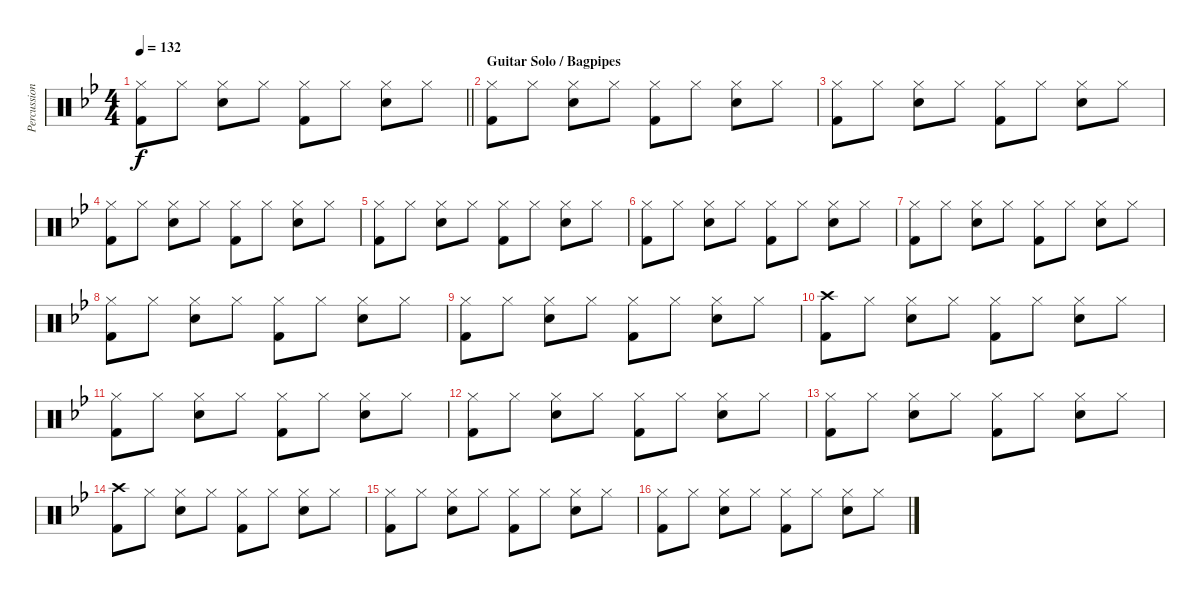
\track ("Percussion" "Percussion") {instrument percussion}
\staff {score}
\articulation defaults
\ts (4 4)
\tempo 132
\clef neutral
\barLineRight lightlight
\ks bb
("Hi-Hat (closed)" "Kick (hit) 2").8{dy f} "Hi-Hat (closed)".8 ("Hi-Hat (closed)" "Snare (hit) 2").8 "Hi-Hat (closed)".8 ("Hi-Hat (closed)" "Kick (hit) 2").8 "Hi-Hat (closed)".8 ("Hi-Hat (closed)" "Snare (hit) 2").8 "Hi-Hat (closed)".8 |
\section ("" "Guitar Solo / Bagpipes")
("Hi-Hat (closed)" "Kick (hit) 2").8 "Hi-Hat (closed)".8 ("Hi-Hat (closed)" "Snare (hit) 2").8 "Hi-Hat (closed)".8 ("Hi-Hat (closed)" "Kick (hit) 2").8 "Hi-Hat (closed)".8 ("Hi-Hat (closed)" "Snare (hit) 2").8 "Hi-Hat (closed)".8 |
("Hi-Hat (closed)" "Kick (hit) 2").8 "Hi-Hat (closed)".8 ("Hi-Hat (closed)" "Snare (hit) 2").8 "Hi-Hat (closed)".8 ("Hi-Hat (closed)" "Kick (hit) 2").8 "Hi-Hat (closed)".8 ("Hi-Hat (closed)" "Snare (hit) 2").8 "Hi-Hat (closed)".8 |
("Hi-Hat (closed)" "Kick (hit) 2").8 "Hi-Hat (closed)".8 ("Hi-Hat (closed)" "Snare (hit) 2").8 "Hi-Hat (closed)".8 ("Hi-Hat (closed)" "Kick (hit) 2").8 "Hi-Hat (closed)".8 ("Hi-Hat (closed)" "Snare (hit) 2").8 "Hi-Hat (closed)".8 |
("Hi-Hat (closed)" "Kick (hit) 2").8 "Hi-Hat (closed)".8 ("Hi-Hat (closed)" "Snare (hit) 2").8 "Hi-Hat (closed)".8 ("Hi-Hat (closed)" "Kick (hit) 2").8 "Hi-Hat (closed)".8 ("Hi-Hat (closed)" "Snare (hit) 2").8 "Hi-Hat (closed)".8 |
("Hi-Hat (closed)" "Kick (hit) 2").8 "Hi-Hat (closed)".8 ("Hi-Hat (closed)" "Snare (hit) 2").8 "Hi-Hat (closed)".8 ("Hi-Hat (closed)" "Kick (hit) 2").8 "Hi-Hat (closed)".8 ("Hi-Hat (closed)" "Snare (hit) 2").8 "Hi-Hat (closed)".8 |
("Hi-Hat (closed)" "Kick (hit) 2").8 "Hi-Hat (closed)".8 ("Hi-Hat (closed)" "Snare (hit) 2").8 "Hi-Hat (closed)".8 ("Hi-Hat (closed)" "Kick (hit) 2").8 "Hi-Hat (closed)".8 ("Hi-Hat (closed)" "Snare (hit) 2").8 "Hi-Hat (closed)".8 |
("Hi-Hat (closed)" "Kick (hit) 2").8 "Hi-Hat (closed)".8 ("Hi-Hat (closed)" "Snare (hit) 2").8 "Hi-Hat (closed)".8 ("Hi-Hat (closed)" "Kick (hit) 2").8 "Hi-Hat (closed)".8 ("Hi-Hat (closed)" "Snare (hit) 2").8 "Hi-Hat (closed)".8 |
("Hi-Hat (closed)" "Kick (hit) 2").8 "Hi-Hat (closed)".8 ("Hi-Hat (closed)" "Snare (hit) 2").8 "Hi-Hat (closed)".8 ("Hi-Hat (closed)" "Kick (hit) 2").8 "Hi-Hat (closed)".8 ("Hi-Hat (closed)" "Snare (hit) 2").8 "Hi-Hat (closed)".8 |
("Crash high (hit)" "Kick (hit) 2").8 "Hi-Hat (closed)".8 ("Hi-Hat (closed)" "Snare (hit) 2").8 "Hi-Hat (closed)".8 ("Hi-Hat (closed)" "Kick (hit) 2").8 "Hi-Hat (closed)".8 ("Hi-Hat (closed)" "Snare (hit) 2").8 "Hi-Hat (closed)".8 |
("Hi-Hat (closed)" "Kick (hit) 2").8 "Hi-Hat (closed)".8 ("Hi-Hat (closed)" "Snare (hit) 2").8 "Hi-Hat (closed)".8 ("Hi-Hat (closed)" "Kick (hit) 2").8 "Hi-Hat (closed)".8 ("Hi-Hat (closed)" "Snare (hit) 2").8 "Hi-Hat (closed)".8 |
("Hi-Hat (closed)" "Kick (hit) 2").8 "Hi-Hat (closed)".8 ("Hi-Hat (closed)" "Snare (hit) 2").8 "Hi-Hat (closed)".8 ("Hi-Hat (closed)" "Kick (hit) 2").8 "Hi-Hat (closed)".8 ("Hi-Hat (closed)" "Snare (hit) 2").8 "Hi-Hat (closed)".8 |
("Hi-Hat (closed)" "Kick (hit) 2").8 "Hi-Hat (closed)".8 ("Hi-Hat (closed)" "Snare (hit) 2").8 "Hi-Hat (closed)".8 ("Hi-Hat (closed)" "Kick (hit) 2").8 "Hi-Hat (closed)".8 ("Hi-Hat (closed)" "Snare (hit) 2").8 "Hi-Hat (closed)".8 |
("Crash high (hit)" "Kick (hit) 2").8 "Hi-Hat (closed)".8 ("Hi-Hat (closed)" "Snare (hit) 2").8 "Hi-Hat (closed)".8 ("Hi-Hat (closed)" "Kick (hit) 2").8 "Hi-Hat (closed)".8 ("Hi-Hat (closed)" "Snare (hit) 2").8 "Hi-Hat (closed)".8 |
("Hi-Hat (closed)" "Kick (hit) 2").8 "Hi-Hat (closed)".8 ("Hi-Hat (closed)" "Snare (hit) 2").8 "Hi-Hat (closed)".8 ("Hi-Hat (closed)" "Kick (hit) 2").8 "Hi-Hat (closed)".8 ("Hi-Hat (closed)" "Snare (hit) 2").8 "Hi-Hat (closed)".8 |
("Hi-Hat (closed)" "Kick (hit) 2").8 "Hi-Hat (closed)".8 ("Hi-Hat (closed)" "Snare (hit) 2").8 "Hi-Hat (closed)".8 ("Hi-Hat (closed)" "Kick (hit) 2").8 "Hi-Hat (closed)".8 ("Hi-Hat (closed)" "Snare (hit) 2").8 "Hi-Hat (closed)".8
